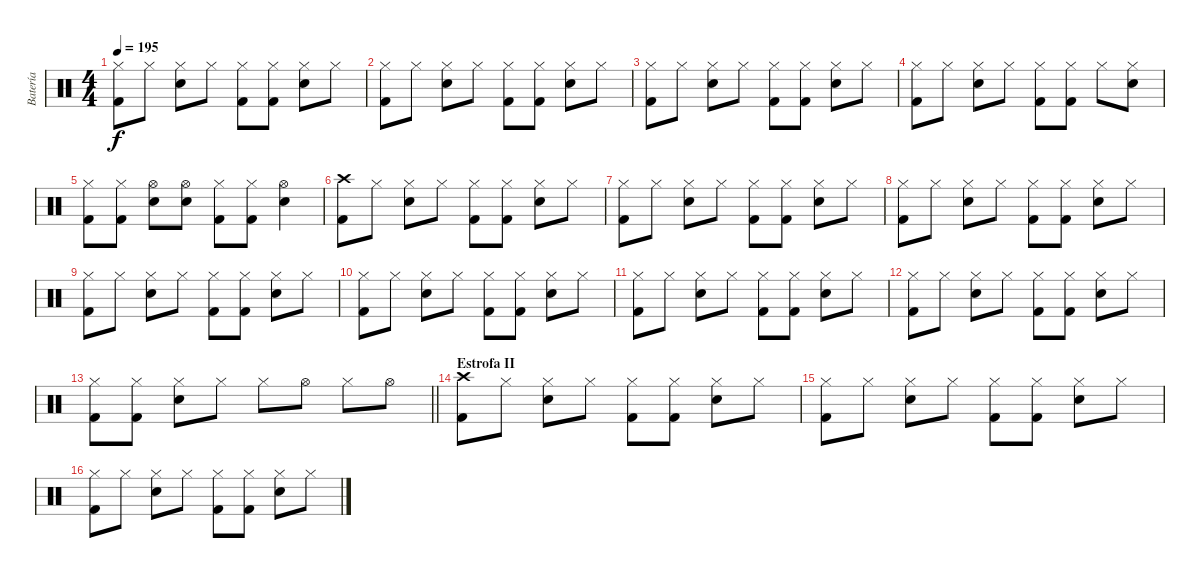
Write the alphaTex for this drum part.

\track ("Batería" "Batería") {instrument percussion}
\staff {score}
\articulation defaults
\ts (4 4)
\tempo 195
\clef neutral
\ks c
("Hi-Hat (closed)" "Kick (hit) 2").8{dy f} "Hi-Hat (closed)".8 ("Hi-Hat (closed)" "Snare (hit) 2").8 "Hi-Hat (closed)".8 ("Hi-Hat (closed)" "Kick (hit) 2").8 ("Hi-Hat (closed)" "Kick (hit) 2").8 ("Hi-Hat (closed)" "Snare (hit) 2").8 "Hi-Hat (closed)".8 |
("Hi-Hat (closed)" "Kick (hit) 2").8 "Hi-Hat (closed)".8 ("Hi-Hat (closed)" "Snare (hit) 2").8 "Hi-Hat (closed)".8 ("Hi-Hat (closed)" "Kick (hit) 2").8 ("Hi-Hat (closed)" "Kick (hit) 2").8 ("Hi-Hat (closed)" "Snare (hit) 2").8 "Hi-Hat (closed)".8 |
("Hi-Hat (closed)" "Kick (hit) 2").8 "Hi-Hat (closed)".8 ("Hi-Hat (closed)" "Snare (hit) 2").8 "Hi-Hat (closed)".8 ("Hi-Hat (closed)" "Kick (hit) 2").8 ("Hi-Hat (closed)" "Kick (hit) 2").8 ("Hi-Hat (closed)" "Snare (hit) 2").8 "Hi-Hat (closed)".8 |
("Hi-Hat (closed)" "Kick (hit) 2").8 "Hi-Hat (closed)".8 ("Hi-Hat (closed)" "Snare (hit) 2").8 "Hi-Hat (closed)".8 ("Hi-Hat (closed)" "Kick (hit) 2").8 ("Hi-Hat (closed)" "Kick (hit) 2").8 "Hi-Hat (closed)".8 ("Hi-Hat (closed)" "Snare (hit) 2").8 |
("Hi-Hat (closed)" "Kick (hit) 2").8 ("Hi-Hat (closed)" "Kick (hit) 2").8 ("Hi-Hat (open)" "Snare (hit) 2").8 ("Hi-Hat (open)" "Snare (hit) 2").8 ("Hi-Hat (closed)" "Kick (hit) 2").8 ("Hi-Hat (closed)" "Kick (hit) 2").8 ("Hi-Hat (open)" "Snare (hit) 2").4 |
("Crash high (hit)" "Kick (hit) 2").8 "Hi-Hat (closed)".8 ("Hi-Hat (closed)" "Snare (hit) 2").8 "Hi-Hat (closed)".8 ("Hi-Hat (closed)" "Kick (hit) 2").8 ("Hi-Hat (closed)" "Kick (hit) 2").8 ("Hi-Hat (closed)" "Snare (hit) 2").8 "Hi-Hat (closed)".8 |
("Hi-Hat (closed)" "Kick (hit) 2").8 "Hi-Hat (closed)".8 ("Hi-Hat (closed)" "Snare (hit) 2").8 "Hi-Hat (closed)".8 ("Hi-Hat (closed)" "Kick (hit) 2").8 ("Hi-Hat (closed)" "Kick (hit) 2").8 ("Hi-Hat (closed)" "Snare (hit) 2").8 "Hi-Hat (closed)".8 |
("Hi-Hat (closed)" "Kick (hit) 2").8 "Hi-Hat (closed)".8 ("Hi-Hat (closed)" "Snare (hit) 2").8 "Hi-Hat (closed)".8 ("Hi-Hat (closed)" "Kick (hit) 2").8 ("Hi-Hat (closed)" "Kick (hit) 2").8 ("Hi-Hat (closed)" "Snare (hit) 2").8 "Hi-Hat (closed)".8 |
("Hi-Hat (closed)" "Kick (hit) 2").8 "Hi-Hat (closed)".8 ("Hi-Hat (closed)" "Snare (hit) 2").8 "Hi-Hat (closed)".8 ("Hi-Hat (closed)" "Kick (hit) 2").8 ("Hi-Hat (closed)" "Kick (hit) 2").8 ("Hi-Hat (closed)" "Snare (hit) 2").8 "Hi-Hat (closed)".8 |
("Hi-Hat (closed)" "Kick (hit) 2").8 "Hi-Hat (closed)".8 ("Hi-Hat (closed)" "Snare (hit) 2").8 "Hi-Hat (closed)".8 ("Hi-Hat (closed)" "Kick (hit) 2").8 ("Hi-Hat (closed)" "Kick (hit) 2").8 ("Hi-Hat (closed)" "Snare (hit) 2").8 "Hi-Hat (closed)".8 |
("Hi-Hat (closed)" "Kick (hit) 2").8 "Hi-Hat (closed)".8 ("Hi-Hat (closed)" "Snare (hit) 2").8 "Hi-Hat (closed)".8 ("Hi-Hat (closed)" "Kick (hit) 2").8 ("Hi-Hat (closed)" "Kick (hit) 2").8 ("Hi-Hat (closed)" "Snare (hit) 2").8 "Hi-Hat (closed)".8 |
("Hi-Hat (closed)" "Kick (hit) 2").8 "Hi-Hat (closed)".8 ("Hi-Hat (closed)" "Snare (hit) 2").8 "Hi-Hat (closed)".8 ("Hi-Hat (closed)" "Kick (hit) 2").8 ("Hi-Hat (closed)" "Kick (hit) 2").8 ("Hi-Hat (closed)" "Snare (hit) 2").8 "Hi-Hat (closed)".8 |
\barLineRight lightlight
("Hi-Hat (closed)" "Kick (hit) 2").8 ("Hi-Hat (closed)" "Kick (hit) 2").8 ("Hi-Hat (closed)" "Snare (hit) 2").8 "Hi-Hat (closed)".8 "Hi-Hat (closed)".8 "Hi-Hat (open)".8 "Hi-Hat (closed)".8 "Hi-Hat (open)".8 |
\section ("" "Estrofa II")
("Crash high (hit)" "Kick (hit) 2").8 "Hi-Hat (closed)".8 ("Hi-Hat (closed)" "Snare (hit) 2").8 "Hi-Hat (closed)".8 ("Hi-Hat (closed)" "Kick (hit) 2").8 ("Hi-Hat (closed)" "Kick (hit) 2").8 ("Hi-Hat (closed)" "Snare (hit) 2").8 "Hi-Hat (closed)".8 |
("Hi-Hat (closed)" "Kick (hit) 2").8 "Hi-Hat (closed)".8 ("Hi-Hat (closed)" "Snare (hit) 2").8 "Hi-Hat (closed)".8 ("Hi-Hat (closed)" "Kick (hit) 2").8 ("Hi-Hat (closed)" "Kick (hit) 2").8 ("Hi-Hat (closed)" "Snare (hit) 2").8 "Hi-Hat (closed)".8 |
("Hi-Hat (closed)" "Kick (hit) 2").8 "Hi-Hat (closed)".8 ("Hi-Hat (closed)" "Snare (hit) 2").8 "Hi-Hat (closed)".8 ("Hi-Hat (closed)" "Kick (hit) 2").8 ("Hi-Hat (closed)" "Kick (hit) 2").8 ("Hi-Hat (closed)" "Snare (hit) 2").8 "Hi-Hat (closed)".8
